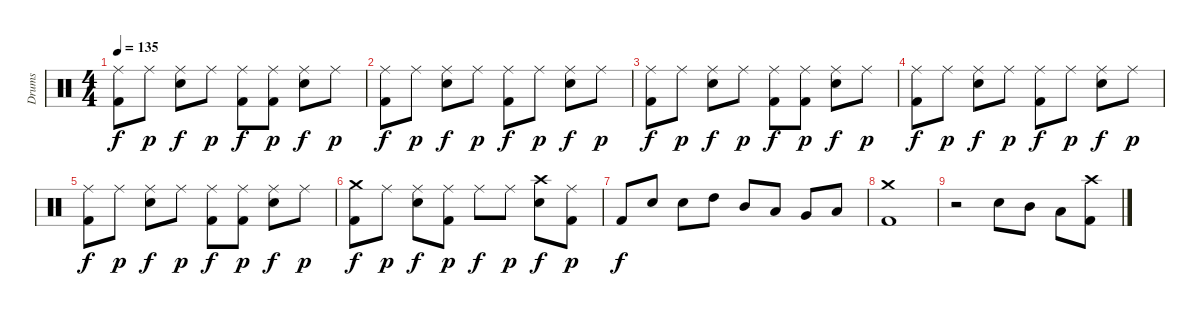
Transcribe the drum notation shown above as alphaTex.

\track ("Drums" "Drums") {instrument percussion}
\staff {score}
\articulation defaults
\ts (4 4)
\tempo 135
\clef neutral
\ks c
("Ride (middle)" "Kick (hit) 2").8{dy f} "Ride (middle)".8{dy p} ("Ride (middle)" "Snare (hit) 2").8{dy f} "Ride (middle)".8{dy p} ("Ride (middle)" "Kick (hit) 2").8{dy f} ("Ride (middle)" "Kick (hit) 2").8{dy p} ("Ride (middle)" "Snare (hit) 2").8{dy f} "Ride (middle)".8{dy p} |
("Ride (middle)" "Kick (hit) 2").8{dy f} "Ride (middle)".8{dy p} ("Ride (middle)" "Snare (hit) 2").8{dy f} "Ride (middle)".8{dy p} ("Ride (middle)" "Kick (hit) 2").8{dy f} "Ride (middle)".8{dy p} ("Ride (middle)" "Snare (hit) 2").8{dy f} "Ride (middle)".8{dy p} |
("Ride (middle)" "Kick (hit) 2").8{dy f} "Ride (middle)".8{dy p} ("Ride (middle)" "Snare (hit) 2").8{dy f} "Ride (middle)".8{dy p} ("Ride (middle)" "Kick (hit) 2").8{dy f} ("Ride (middle)" "Kick (hit) 2").8{dy p} ("Ride (middle)" "Snare (hit) 2").8{dy f} "Ride (middle)".8{dy p} |
("Ride (middle)" "Kick (hit) 2").8{dy f} "Ride (middle)".8{dy p} ("Ride (middle)" "Snare (hit) 2").8{dy f} "Ride (middle)".8{dy p} ("Ride (middle)" "Kick (hit) 2").8{dy f} "Ride (middle)".8{dy p} ("Ride (middle)" "Snare (hit) 2").8{dy f} "Ride (middle)".8{dy p} |
("Ride (middle)" "Kick (hit) 2").8{dy f} "Ride (middle)".8{dy p} ("Ride (middle)" "Snare (hit) 2").8{dy f} "Ride (middle)".8{dy p} ("Ride (middle)" "Kick (hit) 2").8{dy f} ("Ride (middle)" "Kick (hit) 2").8{dy p} ("Ride (middle)" "Snare (hit) 2").8{dy f} "Ride (middle)".8{dy p} |
("Crash medium (hit)" "Kick (hit) 2").8{dy f} "Ride (middle)".8{dy p} ("Ride (middle)" "Snare (hit) 2").8{dy f} ("Ride (middle)" "Kick (hit) 2").8{dy p} "Ride (middle)".8{dy f} "Ride (middle)".8{dy p} ("Crash high (hit)" "Snare (hit) 2").8{dy f} ("Ride (middle)" "Kick (hit) 2").8{dy p} |
"Kick (hit) 2".8{dy f} "Snare (hit) 2".8 "Snare (hit) 2".8 "High Tom (hit)".8 "Mid Tom (hit)".8 "Low Tom (hit)".8 "Very Low Tom (hit)".8 "Low Floor Tom (hit)".8 |
("Crash medium (hit)" "Kick (hit) 2").1 |
r.2 "Snare (hit) 2".8 "Mid Tom (hit)".8 "Low Tom (hit)".8 ("Crash high (hit)" "Kick (hit) 2").8
